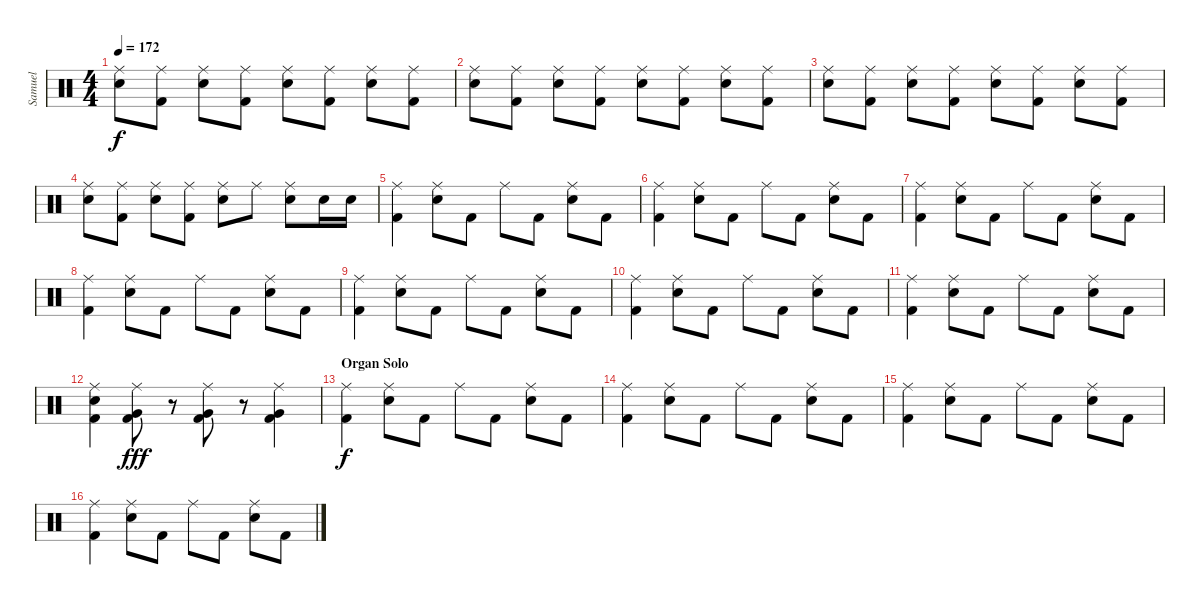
\track ("Samuel" "Samuel") {instrument percussion}
\staff {score}
\articulation defaults
\ts (4 4)
\tempo 172
\clef neutral
\ks c
("Ride (middle)" "Snare (hit) 2").8{dy f} ("Ride (middle)" "Kick (hit) 2").8 ("Ride (middle)" "Snare (hit) 2").8 ("Ride (middle)" "Kick (hit) 2").8 ("Ride (middle)" "Snare (hit) 2").8 ("Ride (middle)" "Kick (hit) 2").8 ("Ride (middle)" "Snare (hit) 2").8 ("Ride (middle)" "Kick (hit) 2").8 |
("Ride (middle)" "Snare (hit) 2").8 ("Ride (middle)" "Kick (hit) 2").8 ("Ride (middle)" "Snare (hit) 2").8 ("Ride (middle)" "Kick (hit) 2").8 ("Ride (middle)" "Snare (hit) 2").8 ("Ride (middle)" "Kick (hit) 2").8 ("Ride (middle)" "Snare (hit) 2").8 ("Ride (middle)" "Kick (hit) 2").8 |
("Ride (middle)" "Snare (hit) 2").8 ("Ride (middle)" "Kick (hit) 2").8 ("Ride (middle)" "Snare (hit) 2").8 ("Ride (middle)" "Kick (hit) 2").8 ("Ride (middle)" "Snare (hit) 2").8 ("Ride (middle)" "Kick (hit) 2").8 ("Ride (middle)" "Snare (hit) 2").8 ("Ride (middle)" "Kick (hit) 2").8 |
("Ride (middle)" "Snare (hit) 2").8 ("Ride (middle)" "Kick (hit) 2").8 ("Ride (middle)" "Snare (hit) 2").8 ("Ride (middle)" "Kick (hit) 2").8 ("Ride (middle)" "Snare (hit) 2").8 "Ride (middle)".8 ("Ride (middle)" "Snare (hit) 2").8 "Snare (hit) 2".16 "Snare (hit) 2".16 |
("Ride (middle)" "Kick (hit) 2").4 ("Ride (middle)" "Snare (hit) 2").8 "Kick (hit) 2".8 "Ride (middle)".8 "Kick (hit) 2".8 ("Ride (middle)" "Snare (hit) 2").8 "Kick (hit) 2".8 |
("Ride (middle)" "Kick (hit) 2").4 ("Ride (middle)" "Snare (hit) 2").8 "Kick (hit) 2".8 "Ride (middle)".8 "Kick (hit) 2".8 ("Ride (middle)" "Snare (hit) 2").8 "Kick (hit) 2".8 |
("Ride (middle)" "Kick (hit) 2").4 ("Ride (middle)" "Snare (hit) 2").8 "Kick (hit) 2".8 "Ride (middle)".8 "Kick (hit) 2".8 ("Ride (middle)" "Snare (hit) 2").8 "Kick (hit) 2".8 |
("Ride (middle)" "Kick (hit) 2").4 ("Ride (middle)" "Snare (hit) 2").8 "Kick (hit) 2".8 "Ride (middle)".8 "Kick (hit) 2".8 ("Ride (middle)" "Snare (hit) 2").8 "Kick (hit) 2".8 |
("Ride (middle)" "Kick (hit) 2").4 ("Ride (middle)" "Snare (hit) 2").8 "Kick (hit) 2".8 "Ride (middle)".8 "Kick (hit) 2".8 ("Ride (middle)" "Snare (hit) 2").8 "Kick (hit) 2".8 |
("Ride (middle)" "Kick (hit) 2").4 ("Ride (middle)" "Snare (hit) 2").8 "Kick (hit) 2".8 "Ride (middle)".8 "Kick (hit) 2".8 ("Ride (middle)" "Snare (hit) 2").8 "Kick (hit) 2".8 |
("Ride (middle)" "Kick (hit) 2").4 ("Ride (middle)" "Snare (hit) 2").8 "Kick (hit) 2".8 "Ride (middle)".8 "Kick (hit) 2".8 ("Ride (middle)" "Snare (hit) 2").8 "Kick (hit) 2".8 |
("Ride (middle)" "Snare (hit) 2" "Kick (hit) 2").4 ("Ride (middle)" "Very Low Tom (hit)" "Kick (hit) 2").8{dy fff} r.8 ("Ride (middle)" "Very Low Tom (hit)" "Kick (hit) 2").8 r.8 ("Ride (middle)" "Very Low Tom (hit)" "Kick (hit) 2").4 |
\section ("" "Organ Solo")
("Ride (middle)" "Kick (hit) 2").4{dy f} ("Ride (middle)" "Snare (hit) 2").8 "Kick (hit) 2".8 "Ride (middle)".8 "Kick (hit) 2".8 ("Ride (middle)" "Snare (hit) 2").8 "Kick (hit) 2".8 |
("Ride (middle)" "Kick (hit) 2").4 ("Ride (middle)" "Snare (hit) 2").8 "Kick (hit) 2".8 "Ride (middle)".8 "Kick (hit) 2".8 ("Ride (middle)" "Snare (hit) 2").8 "Kick (hit) 2".8 |
("Ride (middle)" "Kick (hit) 2").4 ("Ride (middle)" "Snare (hit) 2").8 "Kick (hit) 2".8 "Ride (middle)".8 "Kick (hit) 2".8 ("Ride (middle)" "Snare (hit) 2").8 "Kick (hit) 2".8 |
("Ride (middle)" "Kick (hit) 2").4 ("Ride (middle)" "Snare (hit) 2").8 "Kick (hit) 2".8 "Ride (middle)".8 "Kick (hit) 2".8 ("Ride (middle)" "Snare (hit) 2").8 "Kick (hit) 2".8
